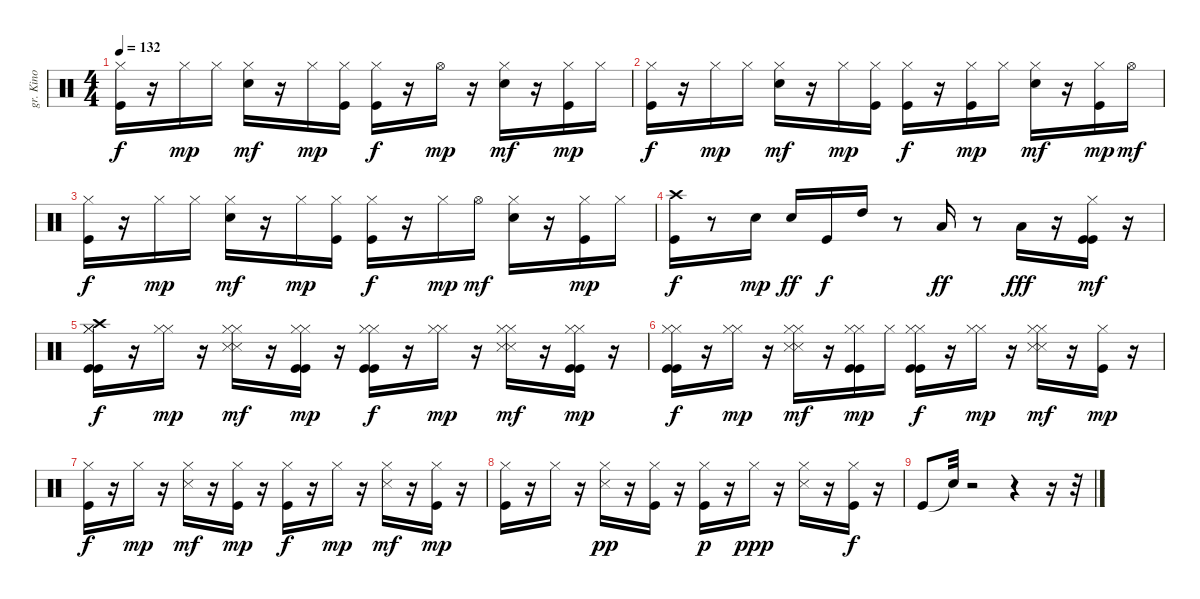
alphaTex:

\track ("gr. Kino" "gr. Kino") {instrument percussion}
\staff {score}
\articulation defaults
\ts (4 4)
\tempo 132
\clef neutral
\ks c
("Kick (hit)" "Hi-Hat (closed)").16{dy f} r.16 "Hi-Hat (closed)".16{dy mp} "Hi-Hat (closed)".16 ("Snare (hit) 2" "Hi-Hat (closed)").16{dy mf} r.16 "Hi-Hat (closed)".16{dy mp} ("Kick (hit)" "Hi-Hat (closed)").16 ("Kick (hit)" "Hi-Hat (closed)").16{dy f} r.16 "Hi-Hat (open)".16{dy mp} r.16 ("Snare (hit) 2" "Hi-Hat (closed)").16{dy mf} r.16 ("Kick (hit)" "Hi-Hat (closed)").16{dy mp} "Hi-Hat (closed)".16 |
("Kick (hit)" "Hi-Hat (closed)").16{dy f} r.16 "Hi-Hat (closed)".16{dy mp} "Hi-Hat (closed)".16 ("Snare (hit) 2" "Hi-Hat (closed)").16{dy mf} r.16 "Hi-Hat (closed)".16{dy mp} ("Kick (hit)" "Hi-Hat (closed)").16 ("Kick (hit)" "Hi-Hat (closed)").16{dy f} r.16 ("Kick (hit)" "Hi-Hat (closed)").16{dy mp} "Hi-Hat (closed)".16 ("Snare (hit) 2" "Hi-Hat (closed)").16{dy mf} r.16 ("Kick (hit)" "Hi-Hat (closed)").16{dy mp} "Hi-Hat (open)".16{dy mf} |
("Kick (hit)" "Hi-Hat (closed)").16{dy f} r.16 "Hi-Hat (closed)".16{dy mp} "Hi-Hat (closed)".16 ("Snare (hit) 2" "Hi-Hat (closed)").16{dy mf} r.16 "Hi-Hat (closed)".16{dy mp} ("Kick (hit)" "Hi-Hat (closed)").16 ("Kick (hit)" "Hi-Hat (closed)").16{dy f} r.16 "Hi-Hat (closed)".16{dy mp} "Hi-Hat (open)".16{dy mf} ("Snare (hit) 2" "Hi-Hat (closed)").16 r.16 ("Kick (hit)" "Hi-Hat (closed)").16{dy mp} "Hi-Hat (closed)".16 |
("Kick (hit)" "Crash high (hit)").16{dy f} r.8 "Snare (hit) 2".16{dy mp} "Snare (hit) 2".16{dy ff} "Kick (hit)".16{dy f} "High Tom (hit)".16 r.8 "Low Tom (hit)".16{dy ff} r.8 "Low Floor Tom (hit)".16{dy fff} r.16 ("Kick (hit)" "Hi-Hat (closed)" "Kick (hit)").16{dy mf} r.16 |
("Kick (hit)" "Hi-Hat (closed)" "Kick (hit)" "Hi-Hat (closed)" "Crash high (hit)").16{dy f} r.16 ("Hi-Hat (closed)" "Hi-Hat (closed)").16{dy mp} r.16 ("Hi-Hat (closed)" "Snare (side stick) 3" "Hi-Hat (closed)" "Snare (side stick) 3").16{dy mf} r.16 ("Kick (hit)" "Hi-Hat (closed)" "Kick (hit)" "Hi-Hat (closed)").16{dy mp} r.16 ("Kick (hit)" "Hi-Hat (closed)" "Kick (hit)" "Hi-Hat (closed)").16{dy f} r.16 ("Hi-Hat (closed)" "Hi-Hat (closed)").16{dy mp} r.16 ("Hi-Hat (closed)" "Snare (side stick) 3" "Hi-Hat (closed)" "Snare (side stick) 3").16{dy mf} r.16 ("Kick (hit)" "Hi-Hat (closed)" "Kick (hit)" "Hi-Hat (closed)").16{dy mp} r.16 |
("Kick (hit)" "Hi-Hat (closed)" "Kick (hit)" "Hi-Hat (closed)").16{dy f} r.16 ("Hi-Hat (closed)" "Hi-Hat (closed)").16{dy mp} r.16 ("Hi-Hat (closed)" "Snare (side stick) 3" "Hi-Hat (closed)" "Snare (side stick) 3").16{dy mf} r.16 ("Kick (hit)" "Hi-Hat (closed)" "Kick (hit)" "Hi-Hat (closed)").16{dy mp} "Hi-Hat (closed)".16 ("Kick (hit)" "Hi-Hat (closed)" "Kick (hit)" "Hi-Hat (closed)").16{dy f} r.16 ("Hi-Hat (closed)" "Hi-Hat (closed)").16{dy mp} r.16 ("Hi-Hat (closed)" "Snare (side stick) 3" "Hi-Hat (closed)" "Snare (side stick) 3").16{dy mf} r.16 ("Kick (hit)" "Hi-Hat (closed)").16{dy mp} r.16 |
("Kick (hit)" "Hi-Hat (closed)").16{dy f} r.16 "Hi-Hat (closed)".16{dy mp} r.16 ("Hi-Hat (closed)" "Snare (side stick) 3").16{dy mf} r.16 ("Kick (hit)" "Hi-Hat (closed)").16{dy mp} r.16 ("Kick (hit)" "Hi-Hat (closed)").16{dy f} r.16 "Hi-Hat (closed)".16{dy mp} r.16 ("Hi-Hat (closed)" "Snare (side stick) 3").16{dy mf} r.16 ("Kick (hit)" "Hi-Hat (closed)").16{dy mp} r.16 |
("Kick (hit)" "Hi-Hat (closed)").16 r.16 "Hi-Hat (closed)".16 r.16 ("Hi-Hat (closed)" "Snare (side stick) 3").16{dy pp} r.16 ("Kick (hit)" "Hi-Hat (closed)").16 r.16 ("Kick (hit)" "Hi-Hat (closed)").16{dy p} r.16 "Hi-Hat (closed)".16{dy ppp} r.16 ("Hi-Hat (closed)" "Snare (side stick) 3").16 r.16 ("Kick (hit)" "Hi-Hat (closed)").16{dy f} r.16 |
"Kick (hit)".8 "Snare (hit)"{t}.32 r.2 r.4 r.16 r.32
